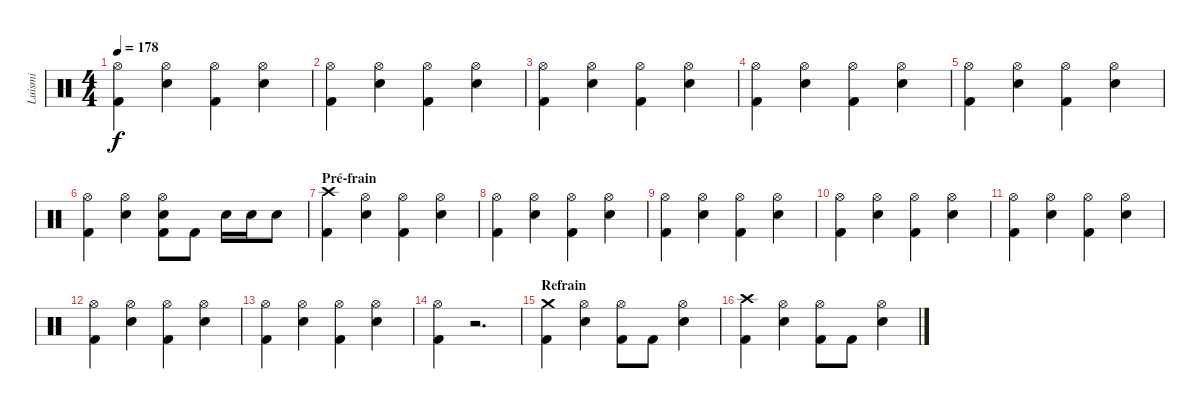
\track ("Luismi" "Luismi") {instrument percussion}
\staff {score}
\articulation defaults
\ts (4 4)
\tempo 178
\clef neutral
\ks c
("Hi-Hat (open)" "Kick (hit) 2").4{dy f} ("Hi-Hat (open)" "Snare (hit) 2").4 ("Hi-Hat (open)" "Kick (hit) 2").4 ("Hi-Hat (open)" "Snare (hit) 2").4 |
("Hi-Hat (open)" "Kick (hit) 2").4 ("Hi-Hat (open)" "Snare (hit) 2").4 ("Hi-Hat (open)" "Kick (hit) 2").4 ("Hi-Hat (open)" "Snare (hit) 2").4 |
("Hi-Hat (open)" "Kick (hit) 2").4 ("Hi-Hat (open)" "Snare (hit) 2").4 ("Hi-Hat (open)" "Kick (hit) 2").4 ("Hi-Hat (open)" "Snare (hit) 2").4 |
("Hi-Hat (open)" "Kick (hit) 2").4 ("Hi-Hat (open)" "Snare (hit) 2").4 ("Hi-Hat (open)" "Kick (hit) 2").4 ("Hi-Hat (open)" "Snare (hit) 2").4 |
("Hi-Hat (open)" "Kick (hit) 2").4 ("Hi-Hat (open)" "Snare (hit) 2").4 ("Hi-Hat (open)" "Kick (hit) 2").4 ("Hi-Hat (open)" "Snare (hit) 2").4 |
("Hi-Hat (open)" "Kick (hit) 2").4 ("Hi-Hat (open)" "Snare (hit) 2").4 ("Hi-Hat (open)" "Snare (hit) 2" "Kick (hit) 2").8 "Kick (hit) 2".8 "Snare (hit) 2".16 "Snare (hit) 2".16 "Snare (hit) 2".8 |
\section ("" "Pré-frain")
("Crash high (hit)" "Kick (hit) 2").4 ("Hi-Hat (open)" "Snare (hit) 2").4 ("Hi-Hat (open)" "Kick (hit) 2").4 ("Hi-Hat (open)" "Snare (hit) 2").4 |
("Hi-Hat (open)" "Kick (hit) 2").4 ("Hi-Hat (open)" "Snare (hit) 2").4 ("Hi-Hat (open)" "Kick (hit) 2").4 ("Hi-Hat (open)" "Snare (hit) 2").4 |
("Hi-Hat (open)" "Kick (hit) 2").4 ("Hi-Hat (open)" "Snare (hit) 2").4 ("Hi-Hat (open)" "Kick (hit) 2").4 ("Hi-Hat (open)" "Snare (hit) 2").4 |
("Hi-Hat (open)" "Kick (hit) 2").4 ("Hi-Hat (open)" "Snare (hit) 2").4 ("Hi-Hat (open)" "Kick (hit) 2").4 ("Hi-Hat (open)" "Snare (hit) 2").4 |
("Hi-Hat (open)" "Kick (hit) 2").4 ("Hi-Hat (open)" "Snare (hit) 2").4 ("Hi-Hat (open)" "Kick (hit) 2").4 ("Hi-Hat (open)" "Snare (hit) 2").4 |
("Hi-Hat (open)" "Kick (hit) 2").4 ("Hi-Hat (open)" "Snare (hit) 2").4 ("Hi-Hat (open)" "Kick (hit) 2").4 ("Hi-Hat (open)" "Snare (hit) 2").4 |
("Hi-Hat (open)" "Kick (hit) 2").4 ("Hi-Hat (open)" "Snare (hit) 2").4 ("Hi-Hat (open)" "Kick (hit) 2").4 ("Hi-Hat (open)" "Snare (hit) 2").4 |
("Hi-Hat (open)" "Kick (hit) 2").4 r.2{d} |
\section ("" "Refrain")
("Crash medium (hit)" "Kick (hit) 2").4 ("Hi-Hat (open)" "Snare (hit) 2").4 ("Hi-Hat (open)" "Kick (hit) 2").8 "Kick (hit) 2".8 ("Hi-Hat (open)" "Snare (hit) 2").4 |
("Crash high (hit)" "Kick (hit) 2").4 ("Hi-Hat (open)" "Snare (hit) 2").4 ("Hi-Hat (open)" "Kick (hit) 2").8 "Kick (hit) 2".8 ("Hi-Hat (open)" "Snare (hit) 2").4
